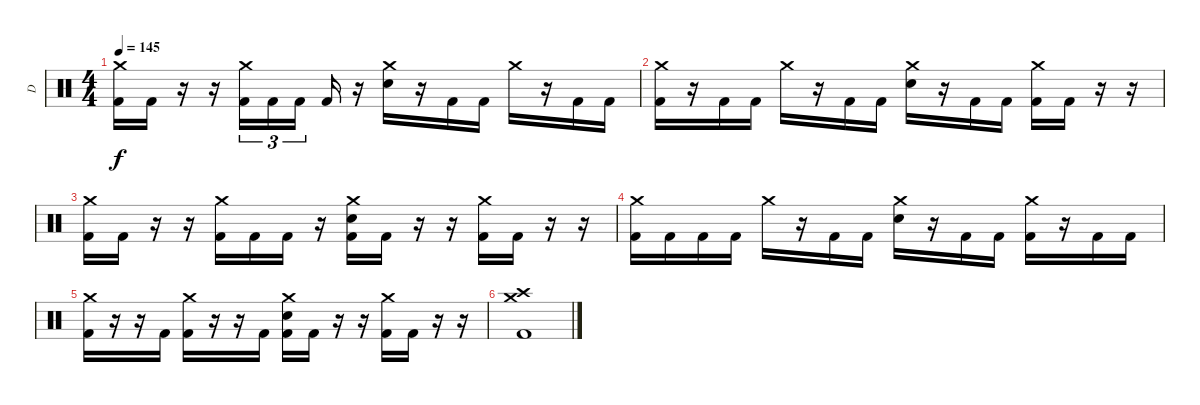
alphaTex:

\track ("D" "D") {instrument percussion}
\staff {score}
\articulation defaults
\ts (4 4)
\tempo 145
\clef neutral
\ks c
("Crash medium (hit)" "Kick (hit) 2").16{dy f} "Kick (hit) 2".16 r.16 r.16 ("Crash medium (hit)" "Kick (hit) 2").16{tu (3 2)} "Kick (hit) 2".16{tu (3 2)} "Kick (hit) 2".16{tu (3 2) beam splitsecondary} "Kick (hit) 2".16 r.16 ("Crash medium (hit)" "Electric Snare (hit)").16 r.16 "Kick (hit) 2".16 "Kick (hit) 2".16 "Crash medium (hit)".16 r.16 "Kick (hit) 2".16 "Kick (hit) 2".16 |
("Crash medium (hit)" "Kick (hit) 2").16 r.16 "Kick (hit) 2".16 "Kick (hit) 2".16 "Crash medium (hit)".16 r.16 "Kick (hit) 2".16 "Kick (hit) 2".16 ("Crash medium (hit)" "Electric Snare (hit)").16 r.16 "Kick (hit) 2".16 "Kick (hit) 2".16 ("Crash medium (hit)" "Kick (hit) 2").16 "Kick (hit) 2".16 r.16 r.16 |
("Crash medium (hit)" "Kick (hit) 2").16 "Kick (hit) 2".16 r.16 r.16 ("Crash medium (hit)" "Kick (hit) 2").16 "Kick (hit) 2".16 "Kick (hit) 2".16 r.16 ("Crash medium (hit)" "Electric Snare (hit)" "Kick (hit) 2").16 "Kick (hit) 2".16 r.16 r.16 ("Crash medium (hit)" "Kick (hit) 2").16 "Kick (hit) 2".16 r.16 r.16 |
("Crash medium (hit)" "Kick (hit) 2").16 "Kick (hit) 2".16 "Kick (hit) 2".16 "Kick (hit) 2".16 "Crash medium (hit)".16 r.16 "Kick (hit) 2".16 "Kick (hit) 2".16 ("Crash medium (hit)" "Electric Snare (hit)").16 r.16 "Kick (hit) 2".16 "Kick (hit) 2".16 ("Crash medium (hit)" "Kick (hit) 2").16 r.16 "Kick (hit) 2".16 "Kick (hit) 2".16 |
("Crash medium (hit)" "Kick (hit) 2").16 r.16 r.16 "Kick (hit) 2".16 ("Crash medium (hit)" "Kick (hit) 2").16 r.16 r.16 "Kick (hit) 2".16 ("Crash medium (hit)" "Electric Snare (hit)" "Kick (hit) 2").16 "Kick (hit) 2".16 r.16 r.16 ("Crash medium (hit)" "Kick (hit) 2").16 "Kick (hit) 2".16 r.16 r.16 |
("Crash medium (hit)" "Crash high (hit)" "Kick (hit) 2").1
